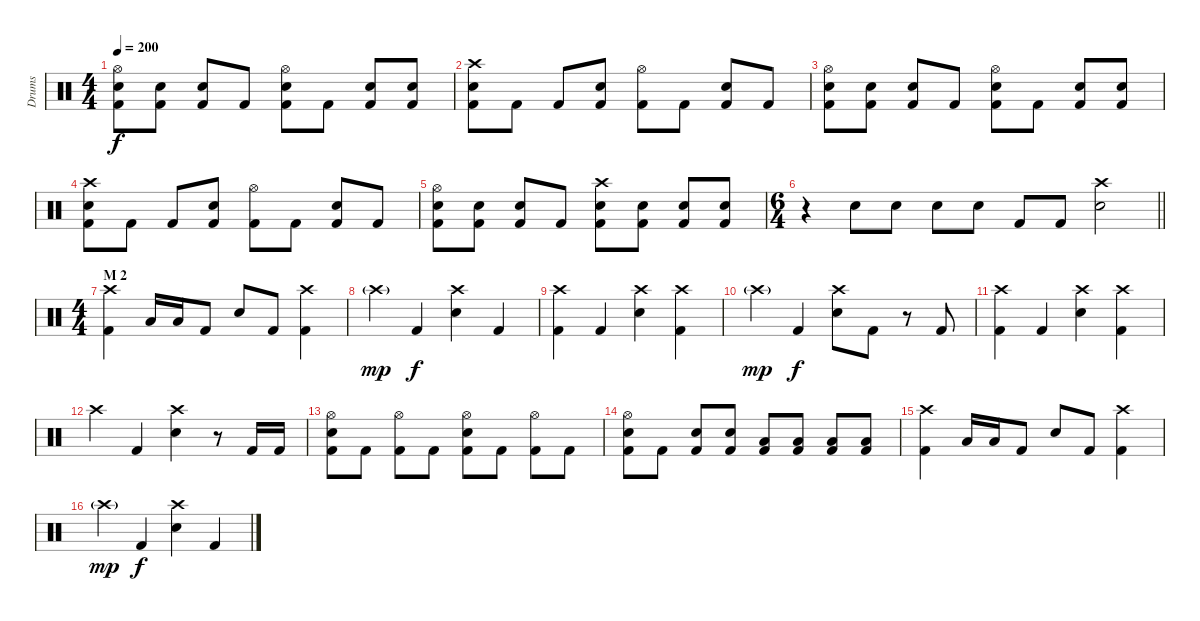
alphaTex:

\track ("Drums" "Drums") {instrument percussion}
\staff {score}
\articulation defaults
\ts (4 4)
\tempo 200
\clef neutral
\ks c
("Hi-Hat (open)" "Snare (hit) 2" "Kick (hit) 2").8{dy f} ("Snare (hit) 2" "Kick (hit) 2").8 ("Snare (hit) 2" "Kick (hit) 2").8 "Kick (hit) 2".8 ("Hi-Hat (open)" "Snare (hit) 2" "Kick (hit) 2").8 "Kick (hit) 2".8 ("Snare (hit) 2" "Kick (hit) 2").8 ("Snare (hit) 2" "Kick (hit) 2").8 |
("Crash high (hit)" "Snare (hit) 2" "Kick (hit) 2").8 "Kick (hit) 2".8 "Kick (hit) 2".8 ("Snare (hit) 2" "Kick (hit) 2").8 ("Hi-Hat (open)" "Kick (hit) 2").8 "Kick (hit) 2".8 ("Snare (hit) 2" "Kick (hit) 2").8 "Kick (hit) 2".8 |
("Hi-Hat (open)" "Snare (hit) 2" "Kick (hit) 2").8 ("Snare (hit) 2" "Kick (hit) 2").8 ("Snare (hit) 2" "Kick (hit) 2").8 "Kick (hit) 2".8 ("Hi-Hat (open)" "Snare (hit) 2" "Kick (hit) 2").8 "Kick (hit) 2".8 ("Snare (hit) 2" "Kick (hit) 2").8 ("Snare (hit) 2" "Kick (hit) 2").8 |
("Crash high (hit)" "Snare (hit) 2" "Kick (hit) 2").8 "Kick (hit) 2".8 "Kick (hit) 2".8 ("Snare (hit) 2" "Kick (hit) 2").8 ("Hi-Hat (open)" "Kick (hit) 2").8 "Kick (hit) 2".8 ("Snare (hit) 2" "Kick (hit) 2").8 "Kick (hit) 2".8 |
("Hi-Hat (open)" "Snare (hit) 2" "Kick (hit) 2").8 ("Snare (hit) 2" "Kick (hit) 2").8 ("Snare (hit) 2" "Kick (hit) 2").8 "Kick (hit) 2".8 ("Crash high (hit)" "Snare (hit) 2" "Kick (hit) 2").8 ("Snare (hit) 2" "Kick (hit) 2").8 ("Snare (hit) 2" "Kick (hit) 2").8 ("Snare (hit) 2" "Kick (hit) 2").8 |
\ts (6 4)
\barLineRight lightlight
r.4 "Snare (hit) 2".8 "Snare (hit) 2".8 "Snare (hit) 2".8 "Snare (hit) 2".8 "Kick (hit) 2".8 "Kick (hit) 2".8 ("Crash high (hit)" "Snare (hit) 2").2 |
\ts (4 4)
\section ("" "M 2")
("Crash high (hit)" "Kick (hit) 2").4 "Low Tom (hit)".16 "Low Tom (hit)".16 "Kick (hit) 2".8 "Snare (hit) 2".8 "Kick (hit) 2".8 ("Crash high (hit)" "Kick (hit) 2").4 |
"Crash high (hit)"{g}.4{dy mp} "Kick (hit) 2".4{dy f} ("Crash high (hit)" "Snare (hit) 2").4 "Kick (hit) 2".4 |
("Crash high (hit)" "Kick (hit) 2").4 "Kick (hit) 2".4 ("Crash high (hit)" "Snare (hit) 2").4 ("Crash high (hit)" "Kick (hit) 2").4 |
"Crash high (hit)"{g}.4{dy mp} "Kick (hit) 2".4{dy f} ("Crash high (hit)" "Snare (hit) 2").8 "Kick (hit) 2".8 r.8 "Kick (hit) 2".8 |
("Crash high (hit)" "Kick (hit) 2").4 "Kick (hit) 2".4 ("Crash high (hit)" "Snare (hit) 2").4 ("Crash high (hit)" "Kick (hit) 2").4 |
"Crash high (hit)".4 "Kick (hit) 2".4 ("Crash high (hit)" "Snare (hit) 2").4 r.8 "Kick (hit) 2".16 "Kick (hit) 2".16 |
("Hi-Hat (open)" "Snare (hit) 2" "Kick (hit) 2").8 "Kick (hit) 2".8 ("Hi-Hat (open)" "Kick (hit) 2").8 "Kick (hit) 2".8 ("Hi-Hat (open)" "Snare (hit) 2" "Kick (hit) 2").8 "Kick (hit) 2".8 ("Hi-Hat (open)" "Kick (hit) 2").8 "Kick (hit) 2".8 |
("Hi-Hat (open)" "Snare (hit) 2" "Kick (hit) 2").8 "Kick (hit) 2".8 ("Snare (hit) 2" "Kick (hit) 2").8 ("Snare (hit) 2" "Kick (hit) 2").8 ("Low Tom (hit)" "Kick (hit) 2").8 ("Low Tom (hit)" "Kick (hit) 2").8 ("Low Tom (hit)" "Kick (hit) 2").8 ("Low Tom (hit)" "Kick (hit) 2").8 |
("Crash high (hit)" "Kick (hit) 2").4 "Low Tom (hit)".16 "Low Tom (hit)".16 "Kick (hit) 2".8 "Snare (hit) 2".8 "Kick (hit) 2".8 ("Crash high (hit)" "Kick (hit) 2").4 |
"Crash high (hit)"{g}.4{dy mp} "Kick (hit) 2".4{dy f} ("Crash high (hit)" "Snare (hit) 2").4 "Kick (hit) 2".4
